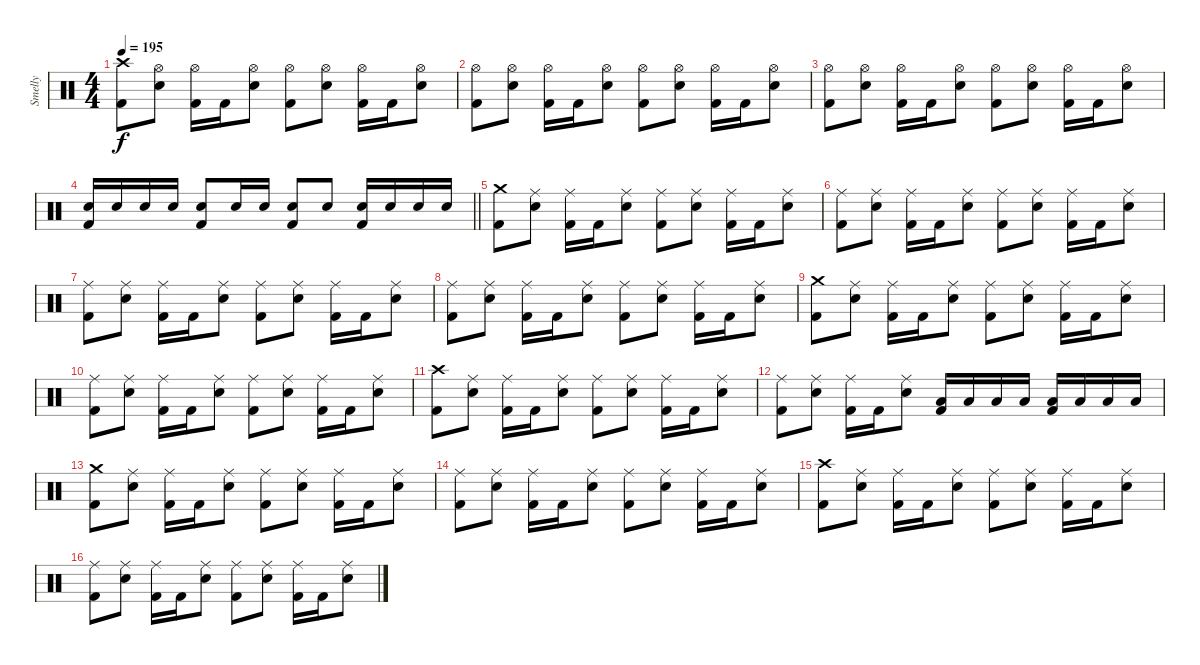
\track ("Smelly" "Smelly") {instrument percussion}
\staff {score}
\articulation defaults
\ts (4 4)
\tempo 195
\clef neutral
\ks c
("Crash high (hit)" "Kick (hit) 2").8{dy f} ("Hi-Hat (open)" "Electric Snare (hit)").8 ("Hi-Hat (open)" "Kick (hit) 2").16 "Kick (hit) 2".16 ("Hi-Hat (open)" "Electric Snare (hit)").8 ("Hi-Hat (open)" "Kick (hit) 2").8 ("Hi-Hat (open)" "Electric Snare (hit)").8 ("Hi-Hat (open)" "Kick (hit) 2").16 "Kick (hit) 2".16 ("Hi-Hat (open)" "Electric Snare (hit)").8 |
("Hi-Hat (open)" "Kick (hit) 2").8 ("Hi-Hat (open)" "Electric Snare (hit)").8 ("Hi-Hat (open)" "Kick (hit) 2").16 "Kick (hit) 2".16 ("Hi-Hat (open)" "Electric Snare (hit)").8 ("Hi-Hat (open)" "Kick (hit) 2").8 ("Hi-Hat (open)" "Electric Snare (hit)").8 ("Hi-Hat (open)" "Kick (hit) 2").16 "Kick (hit) 2".16 ("Hi-Hat (open)" "Electric Snare (hit)").8 |
("Hi-Hat (open)" "Kick (hit) 2").8 ("Hi-Hat (open)" "Electric Snare (hit)").8 ("Hi-Hat (open)" "Kick (hit) 2").16 "Kick (hit) 2".16 ("Hi-Hat (open)" "Electric Snare (hit)").8 ("Hi-Hat (open)" "Kick (hit) 2").8 ("Hi-Hat (open)" "Electric Snare (hit)").8 ("Hi-Hat (open)" "Kick (hit) 2").16 "Kick (hit) 2".16 ("Hi-Hat (open)" "Electric Snare (hit)").8 |
\barLineRight lightlight
("Electric Snare (hit)" "Kick (hit) 2").16 "Electric Snare (hit)".16 "Electric Snare (hit)".16 "Electric Snare (hit)".16 ("Electric Snare (hit)" "Kick (hit) 2").8 "Electric Snare (hit)".16 "Electric Snare (hit)".16 ("Electric Snare (hit)" "Kick (hit) 2").8 "Electric Snare (hit)".8 ("Electric Snare (hit)" "Kick (hit) 2").16 "Electric Snare (hit)".16 "Electric Snare (hit)".16 "Electric Snare (hit)".16 |
\section ("" "")
("Crash medium (hit)" "Kick (hit) 2").8 ("Ride (middle)" "Electric Snare (hit)").8 ("Ride (middle)" "Kick (hit) 2").16 "Kick (hit) 2".16 ("Ride (middle)" "Electric Snare (hit)").8 ("Ride (middle)" "Kick (hit) 2").8 ("Ride (middle)" "Electric Snare (hit)").8 ("Ride (middle)" "Kick (hit) 2").16 "Kick (hit) 2".16 ("Ride (middle)" "Electric Snare (hit)").8 |
("Ride (middle)" "Kick (hit) 2").8 ("Ride (middle)" "Electric Snare (hit)").8 ("Ride (middle)" "Kick (hit) 2").16 "Kick (hit) 2".16 ("Ride (middle)" "Electric Snare (hit)").8 ("Ride (middle)" "Kick (hit) 2").8 ("Ride (middle)" "Electric Snare (hit)").8 ("Ride (middle)" "Kick (hit) 2").16 "Kick (hit) 2".16 ("Ride (middle)" "Electric Snare (hit)").8 |
("Ride (middle)" "Kick (hit) 2").8 ("Ride (middle)" "Electric Snare (hit)").8 ("Ride (middle)" "Kick (hit) 2").16 "Kick (hit) 2".16 ("Ride (middle)" "Electric Snare (hit)").8 ("Ride (middle)" "Kick (hit) 2").8 ("Ride (middle)" "Electric Snare (hit)").8 ("Ride (middle)" "Kick (hit) 2").16 "Kick (hit) 2".16 ("Ride (middle)" "Electric Snare (hit)").8 |
("Ride (middle)" "Kick (hit) 2").8 ("Ride (middle)" "Electric Snare (hit)").8 ("Ride (middle)" "Kick (hit) 2").16 "Kick (hit) 2".16 ("Ride (middle)" "Electric Snare (hit)").8 ("Ride (middle)" "Kick (hit) 2").8 ("Ride (middle)" "Electric Snare (hit)").8 ("Ride (middle)" "Kick (hit) 2").16 "Kick (hit) 2".16 ("Ride (middle)" "Electric Snare (hit)").8 |
("Crash medium (hit)" "Kick (hit) 2").8 ("Ride (middle)" "Electric Snare (hit)").8 ("Ride (middle)" "Kick (hit) 2").16 "Kick (hit) 2".16 ("Ride (middle)" "Electric Snare (hit)").8 ("Ride (middle)" "Kick (hit) 2").8 ("Ride (middle)" "Electric Snare (hit)").8 ("Ride (middle)" "Kick (hit) 2").16 "Kick (hit) 2".16 ("Ride (middle)" "Electric Snare (hit)").8 |
("Ride (middle)" "Kick (hit) 2").8 ("Ride (middle)" "Electric Snare (hit)").8 ("Ride (middle)" "Kick (hit) 2").16 "Kick (hit) 2".16 ("Ride (middle)" "Electric Snare (hit)").8 ("Ride (middle)" "Kick (hit) 2").8 ("Ride (middle)" "Electric Snare (hit)").8 ("Ride (middle)" "Kick (hit) 2").16 "Kick (hit) 2".16 ("Ride (middle)" "Electric Snare (hit)").8 |
("Crash high (hit)" "Kick (hit) 2").8 ("Ride (middle)" "Electric Snare (hit)").8 ("Ride (middle)" "Kick (hit) 2").16 "Kick (hit) 2".16 ("Ride (middle)" "Electric Snare (hit)").8 ("Ride (middle)" "Kick (hit) 2").8 ("Ride (middle)" "Electric Snare (hit)").8 ("Ride (middle)" "Kick (hit) 2").16 "Kick (hit) 2".16 ("Ride (middle)" "Electric Snare (hit)").8 |
("Ride (middle)" "Kick (hit) 2").8 ("Ride (middle)" "Electric Snare (hit)").8 ("Ride (middle)" "Kick (hit) 2").16 "Kick (hit) 2".16 ("Ride (middle)" "Electric Snare (hit)").8 ("Low Tom (hit)" "Kick (hit) 2").16 "Low Tom (hit)".16 "Low Tom (hit)".16 "Low Tom (hit)".16 ("Low Floor Tom (hit)" "Kick (hit) 2").16 "Low Floor Tom (hit)".16 "Low Floor Tom (hit)".16 "Low Floor Tom (hit)".16 |
("Crash medium (hit)" "Kick (hit) 2").8 ("Ride (middle)" "Electric Snare (hit)").8 ("Ride (middle)" "Kick (hit) 2").16 "Kick (hit) 2".16 ("Ride (middle)" "Electric Snare (hit)").8 ("Ride (middle)" "Kick (hit) 2").8 ("Ride (middle)" "Electric Snare (hit)").8 ("Ride (middle)" "Kick (hit) 2").16 "Kick (hit) 2".16 ("Ride (middle)" "Electric Snare (hit)").8 |
("Ride (middle)" "Kick (hit) 2").8 ("Ride (middle)" "Electric Snare (hit)").8 ("Ride (middle)" "Kick (hit) 2").16 "Kick (hit) 2".16 ("Ride (middle)" "Electric Snare (hit)").8 ("Ride (middle)" "Kick (hit) 2").8 ("Ride (middle)" "Electric Snare (hit)").8 ("Ride (middle)" "Kick (hit) 2").16 "Kick (hit) 2".16 ("Ride (middle)" "Electric Snare (hit)").8 |
("Crash high (hit)" "Kick (hit) 2").8 ("Ride (middle)" "Electric Snare (hit)").8 ("Ride (middle)" "Kick (hit) 2").16 "Kick (hit) 2".16 ("Ride (middle)" "Electric Snare (hit)").8 ("Ride (middle)" "Kick (hit) 2").8 ("Ride (middle)" "Electric Snare (hit)").8 ("Ride (middle)" "Kick (hit) 2").16 "Kick (hit) 2".16 ("Ride (middle)" "Electric Snare (hit)").8 |
("Ride (middle)" "Kick (hit) 2").8 ("Ride (middle)" "Electric Snare (hit)").8 ("Ride (middle)" "Kick (hit) 2").16 "Kick (hit) 2".16 ("Ride (middle)" "Electric Snare (hit)").8 ("Ride (middle)" "Kick (hit) 2").8 ("Ride (middle)" "Electric Snare (hit)").8 ("Ride (middle)" "Kick (hit) 2").16 "Kick (hit) 2".16 ("Ride (middle)" "Electric Snare (hit)").8
